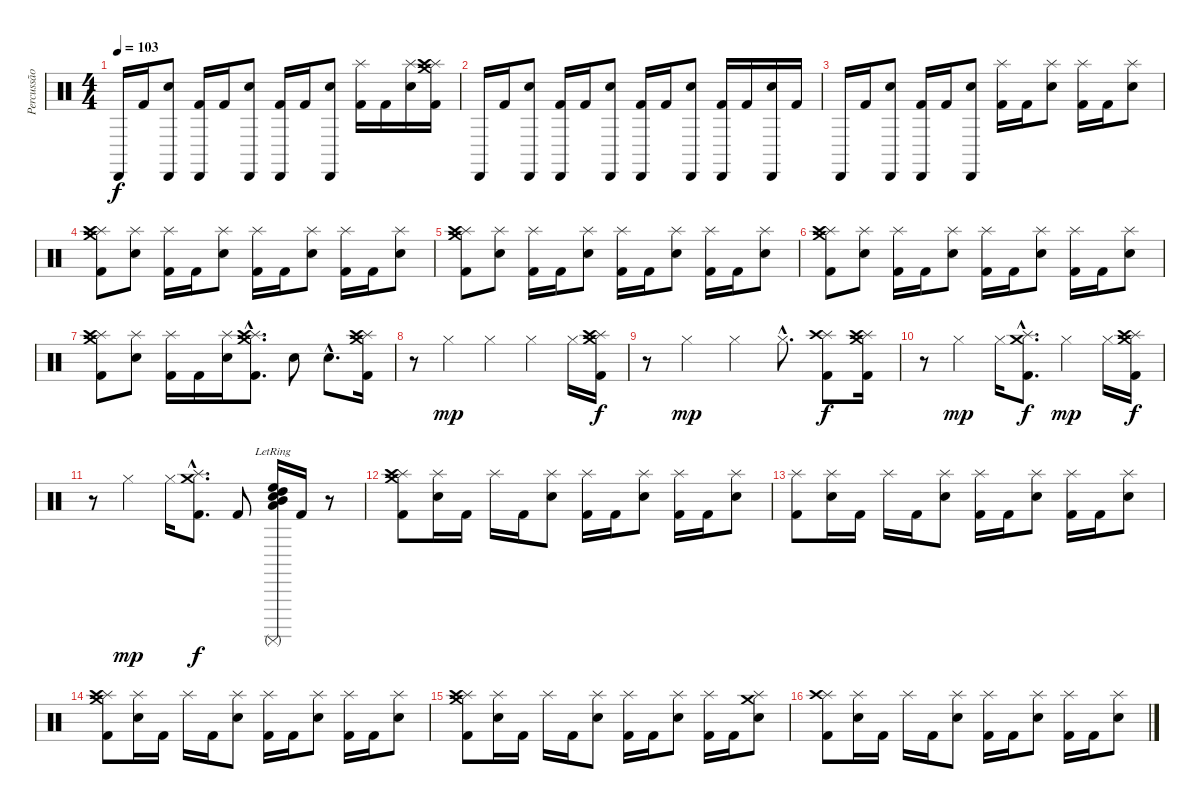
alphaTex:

\track ("Percussão" "Percussão") {instrument percussion}
\staff {score}
\articulation defaults
\ts (4 4)
\tempo 103
\clef neutral
\ks c "Cabasa (hit)".16{dy f} "Kick (hit) 2".16
("Cabasa (hit)" "Electric Snare (hit)").8 ("Cabasa (hit)" "Kick (hit) 2").16 "Kick (hit) 2".16 ("Cabasa (hit)" "Electric Snare (hit)").8 ("Cabasa (hit)" "Kick (hit) 2").16 "Kick (hit) 2".16 ("Cabasa (hit)" "Electric Snare (hit)").8 ("Splash (hit)" "Kick (hit) 2").16 "Kick (hit) 2".16 ("Splash (hit)" "Electric Snare (hit)").16 ("Crash medium (hit)" "Splash (hit)" "Crash high (hit)" "Kick (hit) 2").16 |
"Cabasa (hit)".16 "Kick (hit) 2".16 ("Cabasa (hit)" "Electric Snare (hit)").8 ("Cabasa (hit)" "Kick (hit) 2").16 "Kick (hit) 2".16 ("Cabasa (hit)" "Electric Snare (hit)").8 ("Cabasa (hit)" "Kick (hit) 2").16 "Kick (hit) 2".16 ("Cabasa (hit)" "Electric Snare (hit)").8 ("Cabasa (hit)" "Kick (hit) 2").16 "Kick (hit) 2".16 ("Cabasa (hit)" "Electric Snare (hit)").16 "Kick (hit) 2".16 |
"Cabasa (hit)".16 "Kick (hit) 2".16 ("Cabasa (hit)" "Electric Snare (hit)").8 ("Cabasa (hit)" "Kick (hit) 2").16 "Kick (hit) 2".16 ("Cabasa (hit)" "Electric Snare (hit)").8 ("Splash (hit)" "Kick (hit) 2").16 "Kick (hit) 2".16 ("Splash (hit)" "Electric Snare (hit)").8 ("Splash (hit)" "Kick (hit) 2").16 "Kick (hit) 2".16 ("Splash (hit)" "Electric Snare (hit)").8 |
("Crash medium (hit)" "Splash (hit)" "Crash high (hit)" "Kick (hit) 2").8 ("Splash (hit)" "Electric Snare (hit)").8 ("Splash (hit)" "Kick (hit) 2").16 "Kick (hit) 2".16 ("Splash (hit)" "Electric Snare (hit)").8 ("Splash (hit)" "Kick (hit) 2").16 "Kick (hit) 2".16 ("Splash (hit)" "Electric Snare (hit)").8 ("Splash (hit)" "Kick (hit) 2").16 "Kick (hit) 2".16 ("Splash (hit)" "Electric Snare (hit)").8 |
("Crash medium (hit)" "Splash (hit)" "Crash high (hit)" "Kick (hit) 2").8 ("Splash (hit)" "Electric Snare (hit)").8 ("Splash (hit)" "Kick (hit) 2").16 "Kick (hit) 2".16 ("Splash (hit)" "Electric Snare (hit)").8 ("Splash (hit)" "Kick (hit) 2").16 "Kick (hit) 2".16 ("Splash (hit)" "Electric Snare (hit)").8 ("Splash (hit)" "Kick (hit) 2").16 "Kick (hit) 2".16 ("Splash (hit)" "Electric Snare (hit)").8 |
("Crash medium (hit)" "Splash (hit)" "Crash high (hit)" "Kick (hit) 2").8 ("Splash (hit)" "Electric Snare (hit)").8 ("Splash (hit)" "Kick (hit) 2").16 "Kick (hit) 2".16 ("Splash (hit)" "Electric Snare (hit)").8 ("Splash (hit)" "Kick (hit) 2").16 "Kick (hit) 2".16 ("Splash (hit)" "Electric Snare (hit)").8 ("Splash (hit)" "Kick (hit) 2").16 "Kick (hit) 2".16 ("Splash (hit)" "Electric Snare (hit)").8 |
("Crash medium (hit)" "Splash (hit)" "Crash high (hit)" "Kick (hit) 2").8 ("Splash (hit)" "Electric Snare (hit)").8 ("Splash (hit)" "Kick (hit) 2").16 "Kick (hit) 2".16 ("Splash (hit)" "Electric Snare (hit)").16 ("Crash medium (hit)"{hac} "Splash (hit)"{hac} "Crash high (hit)"{hac} "Kick (hit) 2"{hac}).8{d} "Electric Snare (hit)".8 "Electric Snare (hit)"{hac}.8{d} ("Crash medium (hit)" "Splash (hit)" "Crash high (hit)" "Kick (hit) 2").16 |
r.8 "Hi-Hat (closed)".4{dy mp} "Hi-Hat (closed)".4 "Hi-Hat (closed)".4 "Hi-Hat (closed)".16 ("Crash medium (hit)" "Splash (hit)" "Crash high (hit)" "Kick (hit) 2").16{dy f} |
r.8 "Hi-Hat (closed)".4{dy mp} "Hi-Hat (closed)".4 "Hi-Hat (closed)"{hac}.8{d} ("Splash (hit)" "Crash high (hit)" "Kick (hit) 2").8{dy f} ("Crash medium (hit)" "Splash (hit)" "Crash high (hit)" "Kick (hit) 2").16 |
r.8 "Hi-Hat (closed)".4{dy mp} "Hi-Hat (closed)".16 ("Crash medium (hit)"{hac} "Splash (hit)"{hac} "Kick (hit) 2"{hac}).8{d dy f} "Hi-Hat (closed)".4{dy mp} "Hi-Hat (closed)".16 ("Crash medium (hit)" "Splash (hit)" "Crash high (hit)" "Kick (hit) 2").16{dy f} |
r.8 "Hi-Hat (closed)".4{dy mp} "Hi-Hat (closed)".16 ("Crash medium (hit)"{hac} "Splash (hit)"{hac} "Kick (hit) 2"{hac}).8{d dy f} "Kick (hit) 2".8 ("Low Floor Tom (hit)"{lr} "Surdo (mute)"{lr} "Mid Tom (hit)"{lr} "High Tom (hit)"{lr} "High Floor Tom (hit)"{lr} "Snare (hit) 2"{lr}).16 "Kick (hit) 2".16 r.8 |
("Crash medium (hit)" "Splash (hit)" "Crash high (hit)" "Kick (hit) 2").8 ("Splash (hit)" "Electric Snare (hit)").16 "Kick (hit) 2".16 "Splash (hit)".16 "Kick (hit) 2".16 ("Splash (hit)" "Electric Snare (hit)").8 ("Splash (hit)" "Kick (hit) 2").16 "Kick (hit) 2".16 ("Splash (hit)" "Electric Snare (hit)").8 ("Splash (hit)" "Kick (hit) 2").16 "Kick (hit) 2".16 ("Splash (hit)" "Electric Snare (hit)").8 |
("Splash (hit)" "Kick (hit) 2").8 ("Splash (hit)" "Electric Snare (hit)").16 "Kick (hit) 2".16 "Splash (hit)".16 "Kick (hit) 2".16 ("Splash (hit)" "Electric Snare (hit)").8 ("Splash (hit)" "Kick (hit) 2").16 "Kick (hit) 2".16 ("Splash (hit)" "Electric Snare (hit)").8 ("Splash (hit)" "Kick (hit) 2").16 "Kick (hit) 2".16 ("Splash (hit)" "Electric Snare (hit)").8 |
("Crash medium (hit)" "Splash (hit)" "Crash high (hit)" "Kick (hit) 2").8 ("Splash (hit)" "Electric Snare (hit)").16 "Kick (hit) 2".16 "Splash (hit)".16 "Kick (hit) 2".16 ("Splash (hit)" "Electric Snare (hit)").8 ("Splash (hit)" "Kick (hit) 2").16 "Kick (hit) 2".16 ("Splash (hit)" "Electric Snare (hit)").8 ("Splash (hit)" "Kick (hit) 2").16 "Kick (hit) 2".16 ("Splash (hit)" "Electric Snare (hit)").8 |
("Crash medium (hit)" "Splash (hit)" "Crash high (hit)" "Kick (hit) 2").8 ("Splash (hit)" "Electric Snare (hit)").16 "Kick (hit) 2".16 "Splash (hit)".16 "Kick (hit) 2".16 ("Splash (hit)" "Electric Snare (hit)").8 ("Splash (hit)" "Kick (hit) 2").16 "Kick (hit) 2".16 ("Splash (hit)" "Electric Snare (hit)").8 ("Splash (hit)" "Kick (hit) 2").16 "Kick (hit) 2".16 ("Crash medium (hit)" "Splash (hit)" "Electric Snare (hit)").8 |
("Splash (hit)" "Crash high (hit)" "Kick (hit) 2").8 ("Splash (hit)" "Electric Snare (hit)").16 "Kick (hit) 2".16 "Splash (hit)".16 "Kick (hit) 2".16 ("Splash (hit)" "Electric Snare (hit)").8 ("Splash (hit)" "Kick (hit) 2").16 "Kick (hit) 2".16 ("Splash (hit)" "Electric Snare (hit)").8 ("Splash (hit)" "Kick (hit) 2").16 "Kick (hit) 2".16 ("Splash (hit)" "Electric Snare (hit)").8
